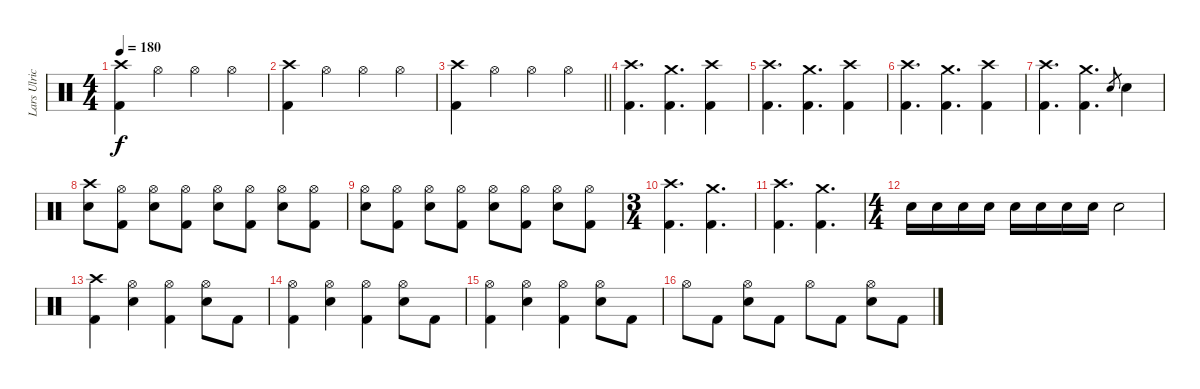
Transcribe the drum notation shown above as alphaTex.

\track ("Lars Ulrich" "Lars Ulric") {instrument percussion}
\staff {score}
\articulation defaults
\ts (4 4)
\tempo 180
\clef neutral
\ks c
("Crash high (hit)" "Kick (hit) 2").4{dy f} "Hi-Hat (open)".4 "Hi-Hat (open)".4 "Hi-Hat (open)".4 |
("Crash high (hit)" "Kick (hit) 2").4 "Hi-Hat (open)".4 "Hi-Hat (open)".4 "Hi-Hat (open)".4 |
\barLineRight lightlight
("Crash high (hit)" "Kick (hit) 2").4 "Hi-Hat (open)".4 "Hi-Hat (open)".4 "Hi-Hat (open)".4 |
\section ("" "")
("Crash high (hit)" "Kick (hit) 2").4{d} ("Crash medium (hit)" "Kick (hit) 2").4{d} ("Crash high (hit)" "Kick (hit) 2").4 |
("Crash high (hit)" "Kick (hit) 2").4{d} ("Crash medium (hit)" "Kick (hit) 2").4{d} ("Crash high (hit)" "Kick (hit) 2").4 |
("Crash high (hit)" "Kick (hit) 2").4{d} ("Crash medium (hit)" "Kick (hit) 2").4{d} ("Crash high (hit)" "Kick (hit) 2").4 |
("Crash high (hit)" "Kick (hit) 2").4{d} ("Crash medium (hit)" "Kick (hit) 2").4{d} "Electric Snare (hit)".8{gr} "Electric Snare (hit)".4 |
("Crash high (hit)" "Electric Snare (hit)").8 ("Hi-Hat (open)" "Kick (hit) 2").8 ("Hi-Hat (open)" "Electric Snare (hit)").8 ("Hi-Hat (open)" "Kick (hit) 2").8 ("Hi-Hat (open)" "Electric Snare (hit)").8 ("Hi-Hat (open)" "Kick (hit) 2").8 ("Hi-Hat (open)" "Electric Snare (hit)").8 ("Hi-Hat (open)" "Kick (hit) 2").8 |
("Hi-Hat (open)" "Electric Snare (hit)").8 ("Hi-Hat (open)" "Kick (hit) 2").8 ("Hi-Hat (open)" "Electric Snare (hit)").8 ("Hi-Hat (open)" "Kick (hit) 2").8 ("Hi-Hat (open)" "Electric Snare (hit)").8 ("Hi-Hat (open)" "Kick (hit) 2").8 ("Hi-Hat (open)" "Electric Snare (hit)").8 ("Hi-Hat (open)" "Kick (hit) 2").8 |
\ts (3 4)
("Crash high (hit)" "Kick (hit) 2").4{d} ("Crash medium (hit)" "Kick (hit) 2").4{d} |
("Crash high (hit)" "Kick (hit) 2").4{d} ("Crash medium (hit)" "Kick (hit) 2").4{d} |
\ts (4 4)
"Electric Snare (hit)".16 "Electric Snare (hit)".16 "Electric Snare (hit)".16 "Electric Snare (hit)".16 "Electric Snare (hit)".16 "Electric Snare (hit)".16 "Electric Snare (hit)".16 "Electric Snare (hit)".16 "Electric Snare (hit)".2 |
("Crash high (hit)" "Kick (hit) 2").4 ("Hi-Hat (open)" "Electric Snare (hit)").4 ("Hi-Hat (open)" "Kick (hit) 2").4 ("Hi-Hat (open)" "Electric Snare (hit)").8 "Kick (hit) 2".8 |
("Hi-Hat (open)" "Kick (hit) 2").4 ("Hi-Hat (open)" "Electric Snare (hit)").4 ("Hi-Hat (open)" "Kick (hit) 2").4 ("Hi-Hat (open)" "Electric Snare (hit)").8 "Kick (hit) 2".8 |
("Hi-Hat (open)" "Kick (hit) 2").4 ("Hi-Hat (open)" "Electric Snare (hit)").4 ("Hi-Hat (open)" "Kick (hit) 2").4 ("Hi-Hat (open)" "Electric Snare (hit)").8 "Kick (hit) 2".8 |
"Hi-Hat (open)".8 "Kick (hit) 2".8 ("Hi-Hat (open)" "Electric Snare (hit)").8 "Kick (hit) 2".8 "Hi-Hat (open)".8 "Kick (hit) 2".8 ("Hi-Hat (open)" "Electric Snare (hit)").8 "Kick (hit) 2".8
